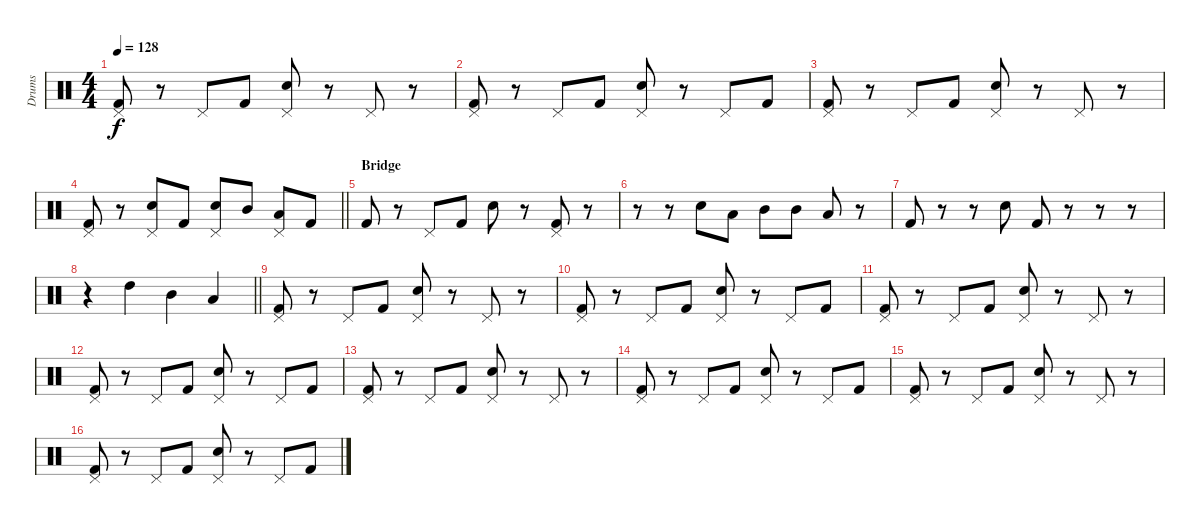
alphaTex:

\track ("Drums" "Drums") {instrument percussion}
\staff {score}
\articulation defaults
\ts (4 4)
\tempo 128
\clef neutral
\ks c
("Pedal Hi-Hat (hit)" "Kick (hit) 2").8{dy f} r.8 "Pedal Hi-Hat (hit)".8 "Kick (hit) 2".8 ("Pedal Hi-Hat (hit)" "Electric Snare (hit)").8 r.8 "Pedal Hi-Hat (hit)".8 r.8 |
("Pedal Hi-Hat (hit)" "Kick (hit) 2").8 r.8 "Pedal Hi-Hat (hit)".8 "Kick (hit) 2".8 ("Pedal Hi-Hat (hit)" "Electric Snare (hit)").8 r.8 "Pedal Hi-Hat (hit)".8 "Kick (hit) 2".8 |
("Pedal Hi-Hat (hit)" "Kick (hit) 2").8 r.8 "Pedal Hi-Hat (hit)".8 "Kick (hit) 2".8 ("Pedal Hi-Hat (hit)" "Electric Snare (hit)").8 r.8 "Pedal Hi-Hat (hit)".8 r.8 |
\barLineRight lightlight
("Pedal Hi-Hat (hit)" "Kick (hit) 2").8 r.8 ("Pedal Hi-Hat (hit)" "Electric Snare (hit)").8 "Kick (hit) 2".8 ("Pedal Hi-Hat (hit)" "Electric Snare (hit)").8 "Mid Tom (hit)".8 ("Pedal Hi-Hat (hit)" "Low Tom (hit)").8 "Kick (hit) 2".8 |
\section ("" "Bridge")
"Kick (hit) 2".8 r.8 "Pedal Hi-Hat (hit)".8 "Kick (hit) 2".8 "Electric Snare (hit)".8 r.8 ("Pedal Hi-Hat (hit)" "Kick (hit) 2").8 r.8 |
r.8 r.8 "Electric Snare (hit)".8 "Low Tom (hit)".8 "Mid Tom (hit)".8 "Mid Tom (hit)".8 "Low Tom (hit)".8 r.8 |
"Kick (hit) 2".8 r.8 r.8 "Electric Snare (hit)".8 "Kick (hit) 2".8 r.8 r.8 r.8 |
\barLineRight lightlight
r.4 "High Tom (hit)".4 "Mid Tom (hit)".4 "Low Tom (hit)".4 |
("Pedal Hi-Hat (hit)" "Kick (hit) 2").8 r.8 "Pedal Hi-Hat (hit)".8 "Kick (hit) 2".8 ("Pedal Hi-Hat (hit)" "Electric Snare (hit)").8 r.8 "Pedal Hi-Hat (hit)".8 r.8 |
("Pedal Hi-Hat (hit)" "Kick (hit) 2").8 r.8 "Pedal Hi-Hat (hit)".8 "Kick (hit) 2".8 ("Pedal Hi-Hat (hit)" "Electric Snare (hit)").8 r.8 "Pedal Hi-Hat (hit)".8 "Kick (hit) 2".8 |
("Pedal Hi-Hat (hit)" "Kick (hit) 2").8 r.8 "Pedal Hi-Hat (hit)".8 "Kick (hit) 2".8 ("Pedal Hi-Hat (hit)" "Electric Snare (hit)").8 r.8 "Pedal Hi-Hat (hit)".8 r.8 |
("Pedal Hi-Hat (hit)" "Kick (hit) 2").8 r.8 "Pedal Hi-Hat (hit)".8 "Kick (hit) 2".8 ("Pedal Hi-Hat (hit)" "Electric Snare (hit)").8 r.8 "Pedal Hi-Hat (hit)".8 "Kick (hit) 2".8 |
("Pedal Hi-Hat (hit)" "Kick (hit) 2").8 r.8 "Pedal Hi-Hat (hit)".8 "Kick (hit) 2".8 ("Pedal Hi-Hat (hit)" "Electric Snare (hit)").8 r.8 "Pedal Hi-Hat (hit)".8 r.8 |
("Pedal Hi-Hat (hit)" "Kick (hit) 2").8 r.8 "Pedal Hi-Hat (hit)".8 "Kick (hit) 2".8 ("Pedal Hi-Hat (hit)" "Electric Snare (hit)").8 r.8 "Pedal Hi-Hat (hit)".8 "Kick (hit) 2".8 |
("Pedal Hi-Hat (hit)" "Kick (hit) 2").8 r.8 "Pedal Hi-Hat (hit)".8 "Kick (hit) 2".8 ("Pedal Hi-Hat (hit)" "Electric Snare (hit)").8 r.8 "Pedal Hi-Hat (hit)".8 r.8 |
("Pedal Hi-Hat (hit)" "Kick (hit) 2").8 r.8 "Pedal Hi-Hat (hit)".8 "Kick (hit) 2".8 ("Pedal Hi-Hat (hit)" "Electric Snare (hit)").8 r.8 "Pedal Hi-Hat (hit)".8 "Kick (hit) 2".8
